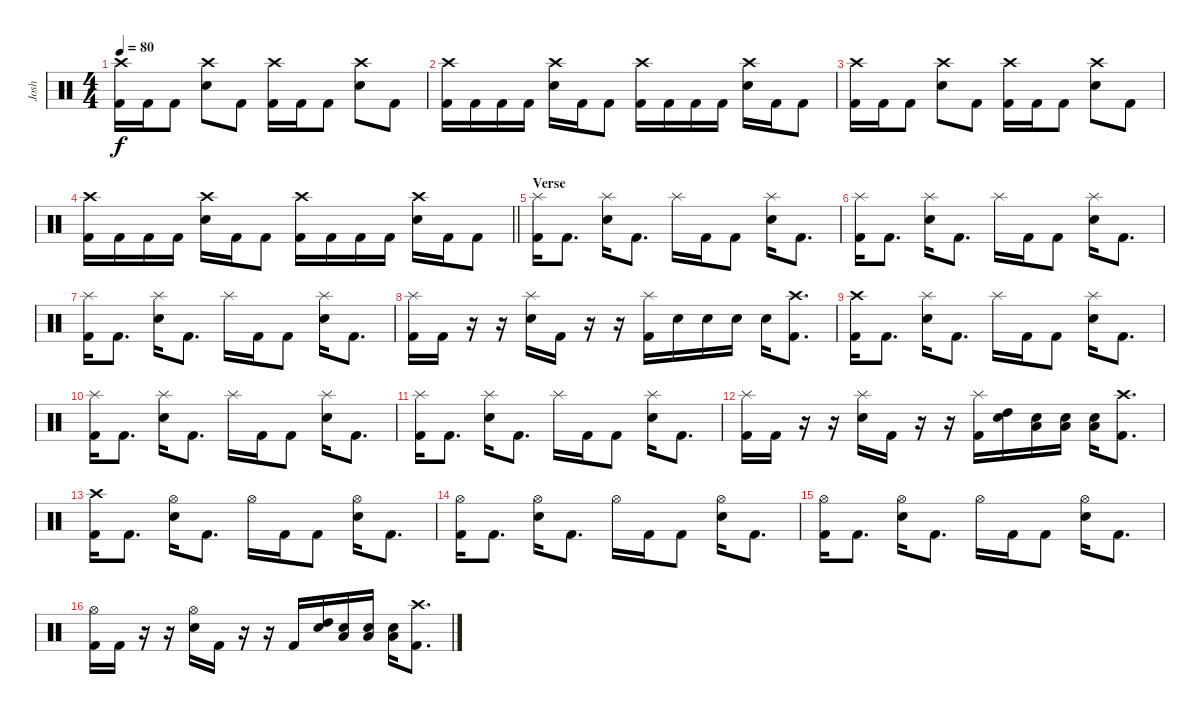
\track ("Josh" "Josh") {instrument percussion}
\staff {score}
\articulation defaults
\ts (4 4)
\tempo 80
\clef neutral
\ks c
("Crash high (hit)" "Kick (hit) 2").16{dy f} "Kick (hit) 2".16 "Kick (hit) 2".8 ("Crash high (hit)" "Electric Snare (hit)").8 "Kick (hit) 2".8 ("Crash high (hit)" "Kick (hit) 2").16 "Kick (hit) 2".16 "Kick (hit) 2".8 ("Crash high (hit)" "Electric Snare (hit)").8 "Kick (hit) 2".8 |
("Crash high (hit)" "Kick (hit) 2").16 "Kick (hit) 2".16 "Kick (hit) 2".16 "Kick (hit) 2".16 ("Crash high (hit)" "Electric Snare (hit)").16 "Kick (hit) 2".16 "Kick (hit) 2".8 ("Crash high (hit)" "Kick (hit) 2").16 "Kick (hit) 2".16 "Kick (hit) 2".16 "Kick (hit) 2".16 ("Crash high (hit)" "Electric Snare (hit)").16 "Kick (hit) 2".16 "Kick (hit) 2".8 |
("Crash high (hit)" "Kick (hit) 2").16 "Kick (hit) 2".16 "Kick (hit) 2".8 ("Crash high (hit)" "Electric Snare (hit)").8 "Kick (hit) 2".8 ("Crash high (hit)" "Kick (hit) 2").16 "Kick (hit) 2".16 "Kick (hit) 2".8 ("Crash high (hit)" "Electric Snare (hit)").8 "Kick (hit) 2".8 |
\barLineRight lightlight
("Crash high (hit)" "Kick (hit) 2").16 "Kick (hit) 2".16 "Kick (hit) 2".16 "Kick (hit) 2".16 ("Crash high (hit)" "Electric Snare (hit)").16 "Kick (hit) 2".16 "Kick (hit) 2".8 ("Crash high (hit)" "Kick (hit) 2").16 "Kick (hit) 2".16 "Kick (hit) 2".16 "Kick (hit) 2".16 ("Crash high (hit)" "Electric Snare (hit)").16 "Kick (hit) 2".16 "Kick (hit) 2".8 |
\section ("" "Verse")
("Splash (hit)" "Kick (hit) 2").16 "Kick (hit) 2".8{d} ("Splash (hit)" "Electric Snare (hit)").16 "Kick (hit) 2".8{d} "Splash (hit)".16 "Kick (hit) 2".16 "Kick (hit) 2".8 ("Splash (hit)" "Electric Snare (hit)").16 "Kick (hit) 2".8{d} |
("Splash (hit)" "Kick (hit) 2").16 "Kick (hit) 2".8{d} ("Splash (hit)" "Electric Snare (hit)").16 "Kick (hit) 2".8{d} "Splash (hit)".16 "Kick (hit) 2".16 "Kick (hit) 2".8 ("Splash (hit)" "Electric Snare (hit)").16 "Kick (hit) 2".8{d} |
("Splash (hit)" "Kick (hit) 2").16 "Kick (hit) 2".8{d} ("Splash (hit)" "Electric Snare (hit)").16 "Kick (hit) 2".8{d} "Splash (hit)".16 "Kick (hit) 2".16 "Kick (hit) 2".8 ("Splash (hit)" "Electric Snare (hit)").16 "Kick (hit) 2".8{d} |
("Splash (hit)" "Kick (hit) 2").16 "Kick (hit) 2".16 r.16 r.16 ("Splash (hit)" "Electric Snare (hit)").16 "Kick (hit) 2".16 r.16 r.16 ("Splash (hit)" "Kick (hit) 2").16 "Electric Snare (hit)".16 "Electric Snare (hit)".16 "Electric Snare (hit)".16 "Electric Snare (hit)".16 ("Crash high (hit)" "Kick (hit) 2").8{d} |
("Crash high (hit)" "Kick (hit) 2").16 "Kick (hit) 2".8{d} ("Splash (hit)" "Electric Snare (hit)").16 "Kick (hit) 2".8{d} "Splash (hit)".16 "Kick (hit) 2".16 "Kick (hit) 2".8 ("Splash (hit)" "Electric Snare (hit)").16 "Kick (hit) 2".8{d} |
("Splash (hit)" "Kick (hit) 2").16 "Kick (hit) 2".8{d} ("Splash (hit)" "Electric Snare (hit)").16 "Kick (hit) 2".8{d} "Splash (hit)".16 "Kick (hit) 2".16 "Kick (hit) 2".8 ("Splash (hit)" "Electric Snare (hit)").16 "Kick (hit) 2".8{d} |
("Splash (hit)" "Kick (hit) 2").16 "Kick (hit) 2".8{d} ("Splash (hit)" "Electric Snare (hit)").16 "Kick (hit) 2".8{d} "Splash (hit)".16 "Kick (hit) 2".16 "Kick (hit) 2".8 ("Splash (hit)" "Electric Snare (hit)").16 "Kick (hit) 2".8{d} |
("Splash (hit)" "Kick (hit) 2").16 "Kick (hit) 2".16 r.16 r.16 ("Splash (hit)" "Electric Snare (hit)").16 "Kick (hit) 2".16 r.16 r.16 ("Splash (hit)" "Kick (hit) 2").16 ("High Tom (hit)" "Electric Snare (hit)").16 ("Electric Snare (hit)" "Low Floor Tom (hit)").16 ("Electric Snare (hit)" "Low Floor Tom (hit)").16 ("Electric Snare (hit)" "Low Floor Tom (hit)").16 ("Crash high (hit)" "Kick (hit) 2").8{d} |
("Crash high (hit)" "Kick (hit) 2").16 "Kick (hit) 2".8{d} ("Hi-Hat (open)" "Electric Snare (hit)").16 "Kick (hit) 2".8{d} "Hi-Hat (open)".16 "Kick (hit) 2".16 "Kick (hit) 2".8 ("Hi-Hat (open)" "Electric Snare (hit)").16 "Kick (hit) 2".8{d} |
("Hi-Hat (open)" "Kick (hit) 2").16 "Kick (hit) 2".8{d} ("Hi-Hat (open)" "Electric Snare (hit)").16 "Kick (hit) 2".8{d} "Hi-Hat (open)".16 "Kick (hit) 2".16 "Kick (hit) 2".8 ("Hi-Hat (open)" "Electric Snare (hit)").16 "Kick (hit) 2".8{d} |
("Hi-Hat (open)" "Kick (hit) 2").16 "Kick (hit) 2".8{d} ("Hi-Hat (open)" "Electric Snare (hit)").16 "Kick (hit) 2".8{d} "Hi-Hat (open)".16 "Kick (hit) 2".16 "Kick (hit) 2".8 ("Hi-Hat (open)" "Electric Snare (hit)").16 "Kick (hit) 2".8{d} |
("Hi-Hat (open)" "Kick (hit) 2").16 "Kick (hit) 2".16 r.16 r.16 ("Hi-Hat (open)" "Electric Snare (hit)").16 "Kick (hit) 2".16 r.16 r.16 "Kick (hit) 2".16 ("High Tom (hit)" "Electric Snare (hit)").16 ("Electric Snare (hit)" "Low Floor Tom (hit)").16 ("Electric Snare (hit)" "Low Floor Tom (hit)").16 ("Electric Snare (hit)" "Low Floor Tom (hit)").16 ("Crash high (hit)" "Kick (hit) 2").8{d}
